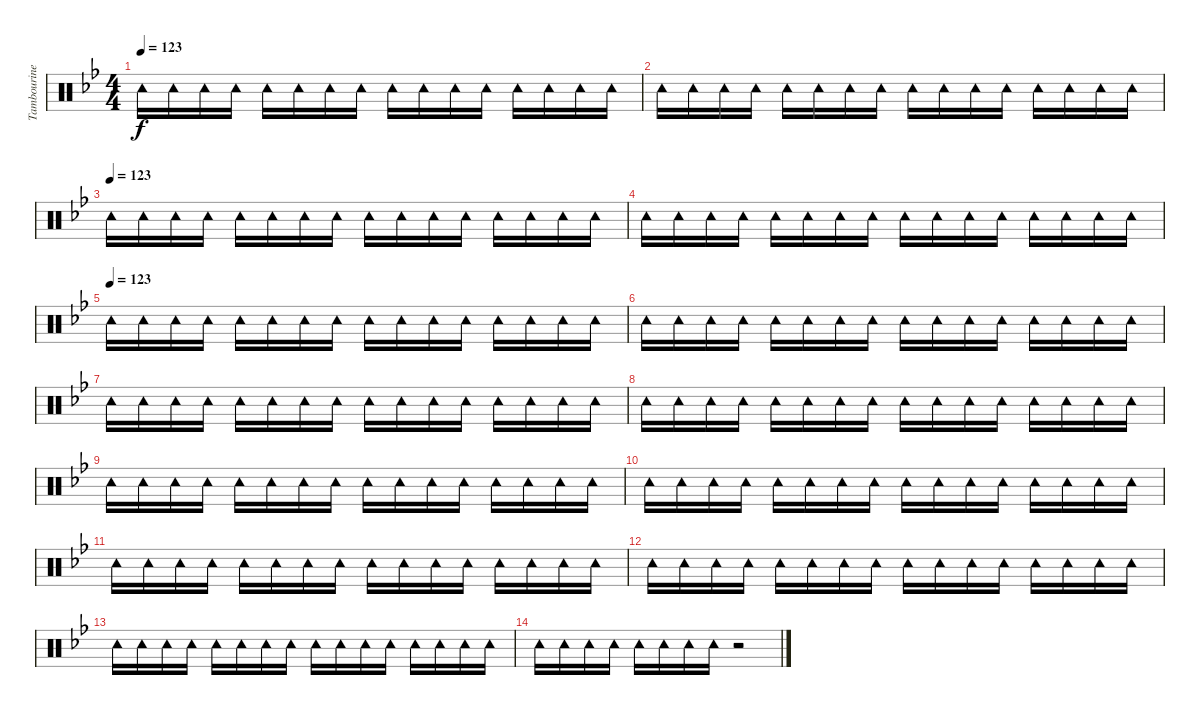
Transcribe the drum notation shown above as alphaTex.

\track ("Tambourine" "Tambourine") {instrument percussion}
\staff {score}
\articulation defaults
\ts (4 4)
\tempo 123
\clef neutral
\ks bb "Tambourine (hit)".16{dy f volume 3} "Tambourine (hit)".16 "Tambourine (hit)".16 "Tambourine (hit)".16 "Tambourine (hit)".16 "Tambourine (hit)".16 "Tambourine (hit)".16 "Tambourine (hit)".16 "Tambourine (hit)".16 "Tambourine (hit)".16 "Tambourine (hit)".16 "Tambourine (hit)".16 "Tambourine (hit)".16 "Tambourine (hit)".16 "Tambourine (hit)".16 "Tambourine (hit)".16
|
"Tambourine (hit)".16 "Tambourine (hit)".16 "Tambourine (hit)".16 "Tambourine (hit)".16 "Tambourine (hit)".16 "Tambourine (hit)".16 "Tambourine (hit)".16 "Tambourine (hit)".16 "Tambourine (hit)".16 "Tambourine (hit)".16 "Tambourine (hit)".16 "Tambourine (hit)".16 "Tambourine (hit)".16 "Tambourine (hit)".16 "Tambourine (hit)".16 "Tambourine (hit)".16 |
\tempo (123)
"Tambourine (hit)".16{volume 3} "Tambourine (hit)".16 "Tambourine (hit)".16 "Tambourine (hit)".16 "Tambourine (hit)".16 "Tambourine (hit)".16 "Tambourine (hit)".16 "Tambourine (hit)".16 "Tambourine (hit)".16 "Tambourine (hit)".16 "Tambourine (hit)".16 "Tambourine (hit)".16 "Tambourine (hit)".16 "Tambourine (hit)".16 "Tambourine (hit)".16 "Tambourine (hit)".16 |
"Tambourine (hit)".16 "Tambourine (hit)".16 "Tambourine (hit)".16 "Tambourine (hit)".16 "Tambourine (hit)".16 "Tambourine (hit)".16 "Tambourine (hit)".16 "Tambourine (hit)".16 "Tambourine (hit)".16 "Tambourine (hit)".16 "Tambourine (hit)".16 "Tambourine (hit)".16 "Tambourine (hit)".16 "Tambourine (hit)".16 "Tambourine (hit)".16 "Tambourine (hit)".16 |
\tempo (123)
"Tambourine (hit)".16{volume 3} "Tambourine (hit)".16 "Tambourine (hit)".16 "Tambourine (hit)".16 "Tambourine (hit)".16 "Tambourine (hit)".16 "Tambourine (hit)".16 "Tambourine (hit)".16 "Tambourine (hit)".16 "Tambourine (hit)".16 "Tambourine (hit)".16 "Tambourine (hit)".16 "Tambourine (hit)".16 "Tambourine (hit)".16 "Tambourine (hit)".16 "Tambourine (hit)".16 |
"Tambourine (hit)".16 "Tambourine (hit)".16 "Tambourine (hit)".16 "Tambourine (hit)".16 "Tambourine (hit)".16 "Tambourine (hit)".16 "Tambourine (hit)".16 "Tambourine (hit)".16 "Tambourine (hit)".16 "Tambourine (hit)".16 "Tambourine (hit)".16 "Tambourine (hit)".16 "Tambourine (hit)".16 "Tambourine (hit)".16 "Tambourine (hit)".16 "Tambourine (hit)".16 |
"Tambourine (hit)".16 "Tambourine (hit)".16 "Tambourine (hit)".16 "Tambourine (hit)".16 "Tambourine (hit)".16 "Tambourine (hit)".16 "Tambourine (hit)".16 "Tambourine (hit)".16 "Tambourine (hit)".16 "Tambourine (hit)".16 "Tambourine (hit)".16 "Tambourine (hit)".16 "Tambourine (hit)".16 "Tambourine (hit)".16 "Tambourine (hit)".16 "Tambourine (hit)".16 |
"Tambourine (hit)".16 "Tambourine (hit)".16 "Tambourine (hit)".16 "Tambourine (hit)".16 "Tambourine (hit)".16 "Tambourine (hit)".16 "Tambourine (hit)".16 "Tambourine (hit)".16 "Tambourine (hit)".16 "Tambourine (hit)".16 "Tambourine (hit)".16 "Tambourine (hit)".16 "Tambourine (hit)".16 "Tambourine (hit)".16 "Tambourine (hit)".16 "Tambourine (hit)".16 |
"Tambourine (hit)".16 "Tambourine (hit)".16 "Tambourine (hit)".16 "Tambourine (hit)".16 "Tambourine (hit)".16 "Tambourine (hit)".16 "Tambourine (hit)".16 "Tambourine (hit)".16 "Tambourine (hit)".16 "Tambourine (hit)".16 "Tambourine (hit)".16 "Tambourine (hit)".16 "Tambourine (hit)".16 "Tambourine (hit)".16 "Tambourine (hit)".16 "Tambourine (hit)".16 |
"Tambourine (hit)".16 "Tambourine (hit)".16 "Tambourine (hit)".16 "Tambourine (hit)".16 "Tambourine (hit)".16 "Tambourine (hit)".16 "Tambourine (hit)".16 "Tambourine (hit)".16 "Tambourine (hit)".16 "Tambourine (hit)".16 "Tambourine (hit)".16 "Tambourine (hit)".16 "Tambourine (hit)".16 "Tambourine (hit)".16 "Tambourine (hit)".16 "Tambourine (hit)".16 |
"Tambourine (hit)".16 "Tambourine (hit)".16 "Tambourine (hit)".16 "Tambourine (hit)".16 "Tambourine (hit)".16 "Tambourine (hit)".16 "Tambourine (hit)".16 "Tambourine (hit)".16 "Tambourine (hit)".16 "Tambourine (hit)".16 "Tambourine (hit)".16 "Tambourine (hit)".16 "Tambourine (hit)".16 "Tambourine (hit)".16 "Tambourine (hit)".16 "Tambourine (hit)".16 |
"Tambourine (hit)".16 "Tambourine (hit)".16 "Tambourine (hit)".16 "Tambourine (hit)".16 "Tambourine (hit)".16 "Tambourine (hit)".16 "Tambourine (hit)".16 "Tambourine (hit)".16 "Tambourine (hit)".16 "Tambourine (hit)".16 "Tambourine (hit)".16 "Tambourine (hit)".16 "Tambourine (hit)".16 "Tambourine (hit)".16 "Tambourine (hit)".16 "Tambourine (hit)".16 |
"Tambourine (hit)".16 "Tambourine (hit)".16 "Tambourine (hit)".16 "Tambourine (hit)".16 "Tambourine (hit)".16 "Tambourine (hit)".16 "Tambourine (hit)".16 "Tambourine (hit)".16 "Tambourine (hit)".16 "Tambourine (hit)".16 "Tambourine (hit)".16 "Tambourine (hit)".16 "Tambourine (hit)".16 "Tambourine (hit)".16 "Tambourine (hit)".16 "Tambourine (hit)".16 |
"Tambourine (hit)".16 "Tambourine (hit)".16 "Tambourine (hit)".16 "Tambourine (hit)".16 "Tambourine (hit)".16 "Tambourine (hit)".16 "Tambourine (hit)".16 "Tambourine (hit)".16 r.2
